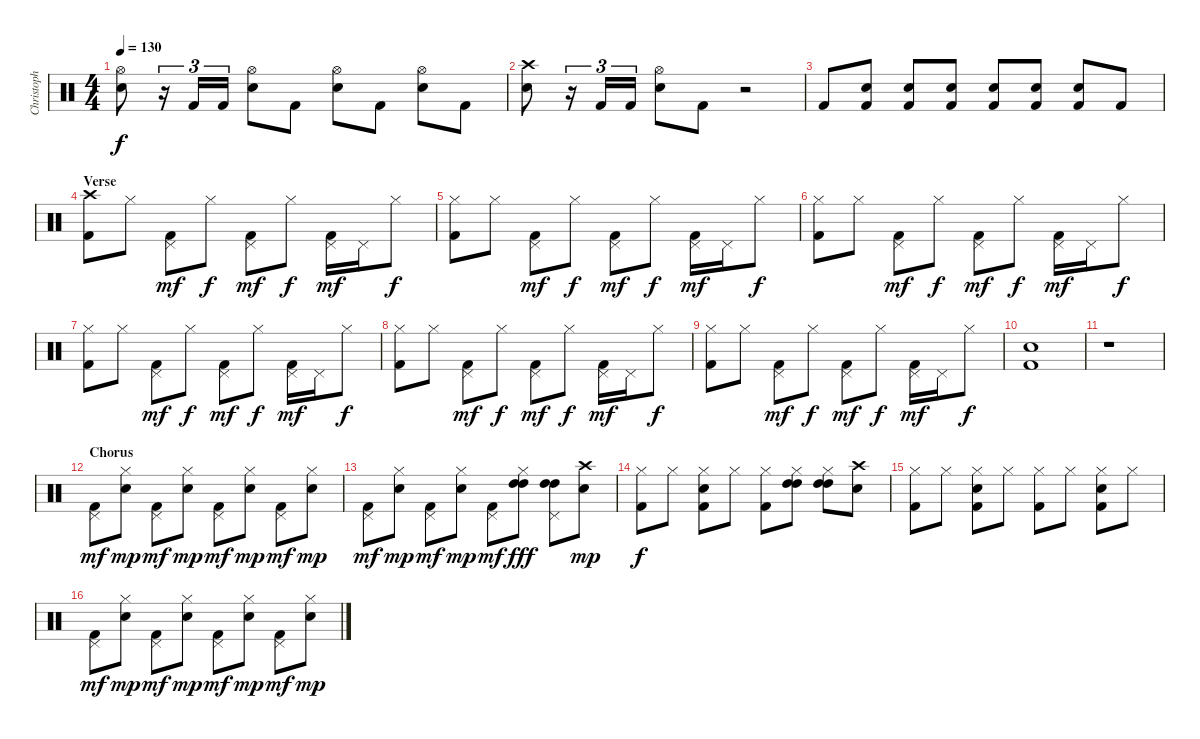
\track ("Christoph" "Christoph") {instrument percussion}
\staff {score}
\articulation defaults
\ts (4 4)
\tempo 130
\clef neutral
\ks c
("Hi-Hat (open)" "Electric Snare (hit)").8{dy f} r.16{tu (3 2)} "Kick (hit) 2".16{tu (3 2)} "Kick (hit) 2".16{tu (3 2)} ("Hi-Hat (open)" "Electric Snare (hit)").8 "Kick (hit) 2".8 ("Hi-Hat (open)" "Electric Snare (hit)").8 "Kick (hit) 2".8 ("Hi-Hat (open)" "Electric Snare (hit)").8 "Kick (hit) 2".8 |
("Crash high (hit)" "Electric Snare (hit)").8 r.16{tu (3 2)} "Kick (hit) 2".16{tu (3 2)} "Kick (hit) 2".16{tu (3 2)} ("Hi-Hat (open)" "Electric Snare (hit)").8 "Kick (hit) 2".8 r.2 |
"Kick (hit) 2".8 ("Electric Snare (hit)" "Kick (hit) 2").8 ("Electric Snare (hit)" "Kick (hit) 2").8 ("Electric Snare (hit)" "Kick (hit) 2").8 ("Electric Snare (hit)" "Kick (hit) 2").8 ("Electric Snare (hit)" "Kick (hit) 2").8 ("Electric Snare (hit)" "Kick (hit) 2").8 "Kick (hit) 2".8 |
\section ("" "Verse")
("Crash high (hit)" "Kick (hit) 2").8 "Hi-Hat (closed)".8 ("Pedal Hi-Hat (hit)" "Kick (hit) 2").8{dy mf} "Hi-Hat (closed)".8{dy f} ("Pedal Hi-Hat (hit)" "Kick (hit) 2").8{dy mf} "Hi-Hat (closed)".8{dy f} ("Pedal Hi-Hat (hit)" "Kick (hit) 2").16{dy mf} "Pedal Hi-Hat (hit)".16 "Hi-Hat (closed)".8{dy f} |
("Hi-Hat (closed)" "Kick (hit) 2").8 "Hi-Hat (closed)".8 ("Pedal Hi-Hat (hit)" "Kick (hit) 2").8{dy mf} "Hi-Hat (closed)".8{dy f} ("Pedal Hi-Hat (hit)" "Kick (hit) 2").8{dy mf} "Hi-Hat (closed)".8{dy f} ("Pedal Hi-Hat (hit)" "Kick (hit) 2").16{dy mf} "Pedal Hi-Hat (hit)".16 "Hi-Hat (closed)".8{dy f} |
("Hi-Hat (closed)" "Kick (hit) 2").8 "Hi-Hat (closed)".8 ("Pedal Hi-Hat (hit)" "Kick (hit) 2").8{dy mf} "Hi-Hat (closed)".8{dy f} ("Pedal Hi-Hat (hit)" "Kick (hit) 2").8{dy mf} "Hi-Hat (closed)".8{dy f} ("Pedal Hi-Hat (hit)" "Kick (hit) 2").16{dy mf} "Pedal Hi-Hat (hit)".16 "Hi-Hat (closed)".8{dy f} |
("Hi-Hat (closed)" "Kick (hit) 2").8 "Hi-Hat (closed)".8 ("Pedal Hi-Hat (hit)" "Kick (hit) 2").8{dy mf} "Hi-Hat (closed)".8{dy f} ("Pedal Hi-Hat (hit)" "Kick (hit) 2").8{dy mf} "Hi-Hat (closed)".8{dy f} ("Pedal Hi-Hat (hit)" "Kick (hit) 2").16{dy mf} "Pedal Hi-Hat (hit)".16 "Hi-Hat (closed)".8{dy f} |
("Hi-Hat (closed)" "Kick (hit) 2").8 "Hi-Hat (closed)".8 ("Pedal Hi-Hat (hit)" "Kick (hit) 2").8{dy mf} "Hi-Hat (closed)".8{dy f} ("Pedal Hi-Hat (hit)" "Kick (hit) 2").8{dy mf} "Hi-Hat (closed)".8{dy f} ("Pedal Hi-Hat (hit)" "Kick (hit) 2").16{dy mf} "Pedal Hi-Hat (hit)".16 "Hi-Hat (closed)".8{dy f} |
("Hi-Hat (closed)" "Kick (hit) 2").8 "Hi-Hat (closed)".8 ("Pedal Hi-Hat (hit)" "Kick (hit) 2").8{dy mf} "Hi-Hat (closed)".8{dy f} ("Pedal Hi-Hat (hit)" "Kick (hit) 2").8{dy mf} "Hi-Hat (closed)".8{dy f} ("Pedal Hi-Hat (hit)" "Kick (hit) 2").16{dy mf} "Pedal Hi-Hat (hit)".16 "Hi-Hat (closed)".8{dy f} |
("Electric Snare (hit)" "Kick (hit) 2").1 |
r.1 |
\section ("" "Chorus")
("Pedal Hi-Hat (hit)" "Kick (hit) 2").8{dy mf} ("Hi-Hat (closed)" "Electric Snare (hit)").8{dy mp} ("Pedal Hi-Hat (hit)" "Kick (hit) 2").8{dy mf} ("Hi-Hat (closed)" "Electric Snare (hit)").8{dy mp} ("Pedal Hi-Hat (hit)" "Kick (hit) 2").8{dy mf} ("Hi-Hat (closed)" "Electric Snare (hit)").8{dy mp} ("Pedal Hi-Hat (hit)" "Kick (hit) 2").8{dy mf} ("Hi-Hat (closed)" "Electric Snare (hit)").8{dy mp} |
("Pedal Hi-Hat (hit)" "Kick (hit) 2").8{dy mf} ("Hi-Hat (closed)" "Electric Snare (hit)").8{dy mp} ("Pedal Hi-Hat (hit)" "Kick (hit) 2").8{dy mf} ("Hi-Hat (closed)" "Electric Snare (hit)").8{dy mp} ("Pedal Hi-Hat (hit)" "Kick (hit) 2").8{dy mf} ("Hi-Hat (closed)" "High Tom (hit)" "High Tom (hit)").8{dy fff} ("Pedal Hi-Hat (hit)" "High Tom (hit)" "High Tom (hit)").8 ("Crash high (hit)" "Electric Snare (hit)").8{dy mp} |
("Hi-Hat (closed)" "Kick (hit) 2").8{dy f} "Hi-Hat (closed)".8 ("Hi-Hat (closed)" "Electric Snare (hit)" "Kick (hit) 2").8 "Hi-Hat (closed)".8 ("Hi-Hat (closed)" "Kick (hit) 2").8 ("Hi-Hat (closed)" "High Tom (hit)" "High Tom (hit)").8 ("Hi-Hat (closed)" "High Tom (hit)" "High Tom (hit)").8 ("Crash high (hit)" "Electric Snare (hit)").8 |
("Hi-Hat (closed)" "Kick (hit) 2").8 "Hi-Hat (closed)".8 ("Hi-Hat (closed)" "Electric Snare (hit)" "Kick (hit) 2").8 "Hi-Hat (closed)".8 ("Hi-Hat (closed)" "Kick (hit) 2").8 "Hi-Hat (closed)".8 ("Hi-Hat (closed)" "Electric Snare (hit)" "Kick (hit) 2").8 "Hi-Hat (closed)".8 |
("Pedal Hi-Hat (hit)" "Kick (hit) 2").8{dy mf} ("Hi-Hat (closed)" "Electric Snare (hit)").8{dy mp} ("Pedal Hi-Hat (hit)" "Kick (hit) 2").8{dy mf} ("Hi-Hat (closed)" "Electric Snare (hit)").8{dy mp} ("Pedal Hi-Hat (hit)" "Kick (hit) 2").8{dy mf} ("Hi-Hat (closed)" "Electric Snare (hit)").8{dy mp} ("Pedal Hi-Hat (hit)" "Kick (hit) 2").8{dy mf} ("Hi-Hat (closed)" "Electric Snare (hit)").8{dy mp}
